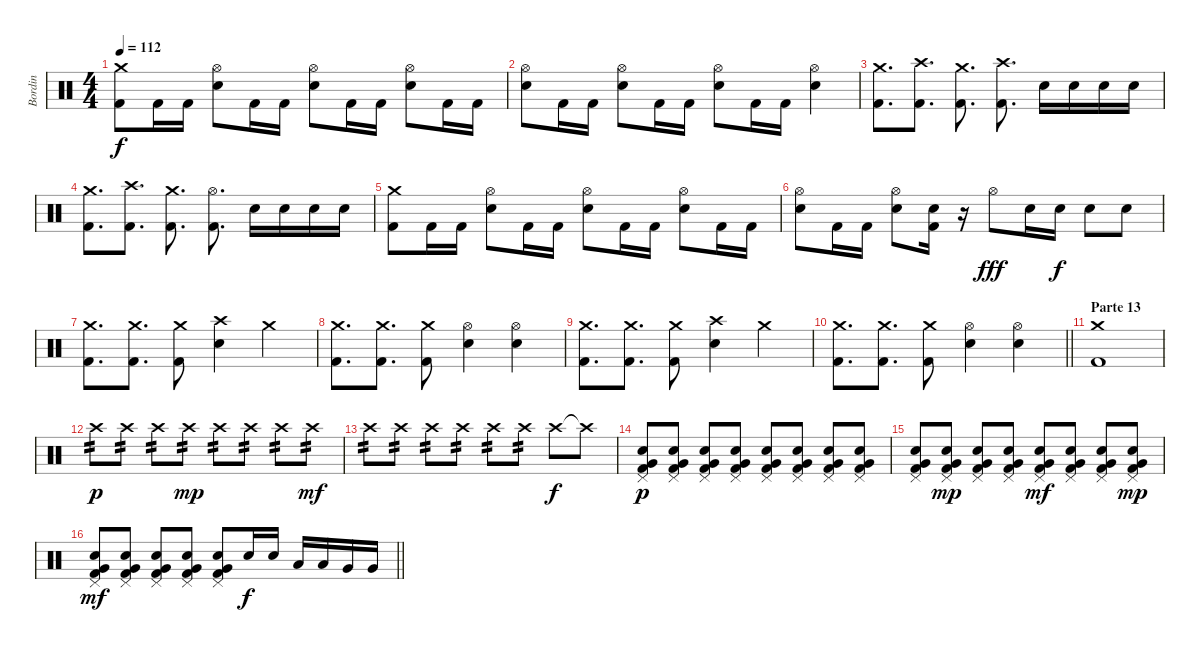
\track ("Bordin" "Bordin") {instrument percussion}
\staff {score}
\articulation defaults
\ts (4 4)
\tempo 112
\clef neutral
\ks c
("Crash medium (hit)" "Kick (hit) 2").8{dy f} "Kick (hit) 2".16 "Kick (hit) 2".16 ("Hi-Hat (open)" "Electric Snare (hit)").8 "Kick (hit) 2".16 "Kick (hit) 2".16 ("Hi-Hat (open)" "Electric Snare (hit)").8 "Kick (hit) 2".16 "Kick (hit) 2".16 ("Hi-Hat (open)" "Electric Snare (hit)").8 "Kick (hit) 2".16 "Kick (hit) 2".16 |
("Hi-Hat (open)" "Electric Snare (hit)").8 "Kick (hit) 2".16 "Kick (hit) 2".16 ("Hi-Hat (open)" "Electric Snare (hit)").8 "Kick (hit) 2".16 "Kick (hit) 2".16 ("Hi-Hat (open)" "Electric Snare (hit)").8 "Kick (hit) 2".16 "Kick (hit) 2".16 ("Hi-Hat (open)" "Electric Snare (hit)").4 |
("Crash medium (hit)" "Kick (hit) 2").8{d} ("Crash high (hit)" "Kick (hit) 2").8{d} ("Crash medium (hit)" "Kick (hit) 2").8{d} ("Crash high (hit)" "Kick (hit) 2").8{d} "Electric Snare (hit)".16 "Electric Snare (hit)".16 "Electric Snare (hit)".16 "Electric Snare (hit)".16 |
("Crash medium (hit)" "Kick (hit) 2").8{d} ("Crash high (hit)" "Kick (hit) 2").8{d} ("Crash medium (hit)" "Kick (hit) 2").8{d} ("Hi-Hat (open)" "Kick (hit) 2").8{d} "Electric Snare (hit)".16 "Electric Snare (hit)".16 "Electric Snare (hit)".16 "Electric Snare (hit)".16 |
("Crash medium (hit)" "Kick (hit) 2").8 "Kick (hit) 2".16 "Kick (hit) 2".16 ("Hi-Hat (open)" "Electric Snare (hit)").8 "Kick (hit) 2".16 "Kick (hit) 2".16 ("Hi-Hat (open)" "Electric Snare (hit)").8 "Kick (hit) 2".16 "Kick (hit) 2".16 ("Hi-Hat (open)" "Electric Snare (hit)").8 "Kick (hit) 2".16 "Kick (hit) 2".16 |
("Hi-Hat (open)" "Electric Snare (hit)").8 "Kick (hit) 2".16 "Kick (hit) 2".16 ("Hi-Hat (open)" "Electric Snare (hit)").8 ("Electric Snare (hit)" "Kick (hit) 2").16 r.16 "Hi-Hat (open)".8{dy fff} "Electric Snare (hit)".16 "Electric Snare (hit)".16{dy f} "Electric Snare (hit)".8 "Electric Snare (hit)".8 |
("Crash medium (hit)" "Kick (hit) 2").8{d} ("Crash medium (hit)" "Kick (hit) 2").8{d} ("Crash medium (hit)" "Kick (hit) 2").8 ("Crash high (hit)" "Electric Snare (hit)").4 "Crash medium (hit)".4 |
("Crash medium (hit)" "Kick (hit) 2").8{d} ("Crash medium (hit)" "Kick (hit) 2").8{d} ("Crash medium (hit)" "Kick (hit) 2").8 ("Hi-Hat (open)" "Electric Snare (hit)").4 ("Hi-Hat (open)" "Electric Snare (hit)").4 |
("Crash medium (hit)" "Kick (hit) 2").8{d} ("Crash medium (hit)" "Kick (hit) 2").8{d} ("Crash medium (hit)" "Kick (hit) 2").8 ("Crash high (hit)" "Electric Snare (hit)").4 "Crash medium (hit)".4 |
\barLineRight lightlight
("Crash medium (hit)" "Kick (hit) 2").8{d} ("Crash medium (hit)" "Kick (hit) 2").8{d} ("Crash medium (hit)" "Kick (hit) 2").8 ("Hi-Hat (open)" "Electric Snare (hit)").4 ("Hi-Hat (open)" "Electric Snare (hit)").4 |
\section ("" "Parte 13")
("Crash medium (hit)" "Kick (hit) 2").1 |
"Crash high (hit)".8{tp 2 dy p} "Crash high (hit)".8{tp 2} "Crash high (hit)".8{tp 2} "Crash high (hit)".8{tp 2 dy mp} "Crash high (hit)".8{tp 2} "Crash high (hit)".8{tp 2} "Crash high (hit)".8{tp 2} "Crash high (hit)".8{tp 2 dy mf} |
"Crash high (hit)".8{tp 2} "Crash high (hit)".8{tp 2} "Crash high (hit)".8{tp 2} "Crash high (hit)".8{tp 2} "Crash high (hit)".8{tp 2} "Crash high (hit)".8{tp 2} "Crash high (hit)".8{dy f} "Crash high (hit)"{t}.8 |
("Very Low Tom (hit)" "Pedal Hi-Hat (hit)" "Electric Snare (hit)" "Kick (hit) 2").8{dy p} ("Very Low Tom (hit)" "Pedal Hi-Hat (hit)" "Electric Snare (hit)" "Kick (hit) 2").8 ("Very Low Tom (hit)" "Pedal Hi-Hat (hit)" "Electric Snare (hit)" "Kick (hit) 2").8 ("Very Low Tom (hit)" "Pedal Hi-Hat (hit)" "Electric Snare (hit)" "Kick (hit) 2").8 ("Very Low Tom (hit)" "Pedal Hi-Hat (hit)" "Electric Snare (hit)" "Kick (hit) 2").8 ("Very Low Tom (hit)" "Pedal Hi-Hat (hit)" "Electric Snare (hit)" "Kick (hit) 2").8 ("Very Low Tom (hit)" "Pedal Hi-Hat (hit)" "Electric Snare (hit)" "Kick (hit) 2").8 ("Very Low Tom (hit)" "Pedal Hi-Hat (hit)" "Electric Snare (hit)" "Kick (hit) 2").8 |
("Very Low Tom (hit)" "Pedal Hi-Hat (hit)" "Electric Snare (hit)" "Kick (hit) 2").8 ("Very Low Tom (hit)" "Pedal Hi-Hat (hit)" "Electric Snare (hit)" "Kick (hit) 2").8{dy mp} ("Very Low Tom (hit)" "Pedal Hi-Hat (hit)" "Electric Snare (hit)" "Kick (hit) 2").8 ("Very Low Tom (hit)" "Pedal Hi-Hat (hit)" "Electric Snare (hit)" "Kick (hit) 2").8 ("Very Low Tom (hit)" "Pedal Hi-Hat (hit)" "Electric Snare (hit)" "Kick (hit) 2").8{dy mf} ("Very Low Tom (hit)" "Pedal Hi-Hat (hit)" "Electric Snare (hit)" "Kick (hit) 2").8 ("Very Low Tom (hit)" "Pedal Hi-Hat (hit)" "Electric Snare (hit)" "Kick (hit) 2").8 ("Very Low Tom (hit)" "Pedal Hi-Hat (hit)" "Electric Snare (hit)" "Kick (hit) 2").8{dy mp} |
\barLineRight lightlight
("Very Low Tom (hit)" "Pedal Hi-Hat (hit)" "Electric Snare (hit)" "Kick (hit) 2").8{dy mf} ("Very Low Tom (hit)" "Pedal Hi-Hat (hit)" "Electric Snare (hit)" "Kick (hit) 2").8 ("Very Low Tom (hit)" "Pedal Hi-Hat (hit)" "Electric Snare (hit)" "Kick (hit) 2").8 ("Very Low Tom (hit)" "Pedal Hi-Hat (hit)" "Electric Snare (hit)" "Kick (hit) 2").8 ("Very Low Tom (hit)" "Pedal Hi-Hat (hit)" "Electric Snare (hit)" "Kick (hit) 2").8 "Electric Snare (hit)".16{dy f} "Electric Snare (hit)".16 "Low Tom (hit)".16 "Low Tom (hit)".16 "Very Low Tom (hit)".16 "Very Low Tom (hit)".16
